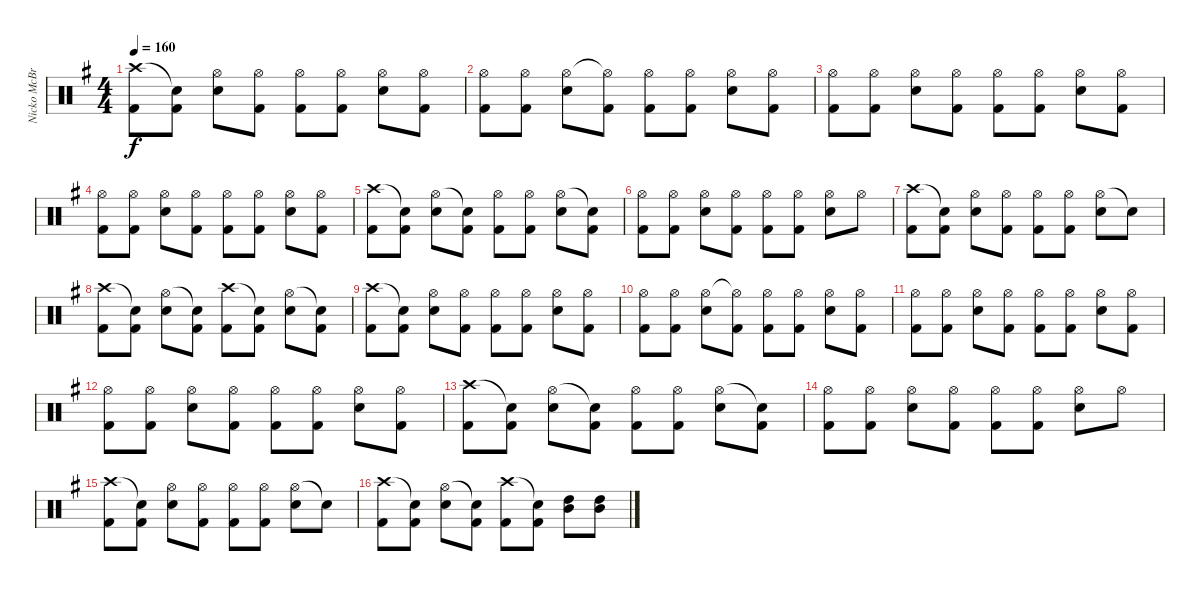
\track ("Nicko McBrain" "Nicko McBr") {instrument percussion}
\staff {score}
\articulation defaults
\ts (4 4)
\tempo 160
\clef neutral
\ks g
("Crash high (hit)" "Kick (hit) 2").8{dy f} ("Snare (hit)"{t} "Kick (hit) 2").8 ("Hi-Hat (open)" "Electric Snare (hit)").8 ("Hi-Hat (open)" "Kick (hit) 2").8 ("Hi-Hat (open)" "Kick (hit) 2").8 ("Hi-Hat (open)" "Kick (hit) 2").8 ("Hi-Hat (open)" "Electric Snare (hit)").8 ("Hi-Hat (open)" "Kick (hit) 2").8 |
("Hi-Hat (open)" "Kick (hit) 2").8 ("Hi-Hat (open)" "Kick (hit) 2").8 ("Hi-Hat (open)" "Electric Snare (hit)").8 ("Hi-Hat (open)"{t} "Kick (hit) 2").8 ("Hi-Hat (open)" "Kick (hit) 2").8 ("Hi-Hat (open)" "Kick (hit) 2").8 ("Hi-Hat (open)" "Electric Snare (hit)").8 ("Hi-Hat (open)" "Kick (hit) 2").8 |
("Hi-Hat (open)" "Kick (hit) 2").8 ("Hi-Hat (open)" "Kick (hit) 2").8 ("Hi-Hat (open)" "Electric Snare (hit)").8 ("Hi-Hat (open)" "Kick (hit) 2").8 ("Hi-Hat (open)" "Kick (hit) 2").8 ("Hi-Hat (open)" "Kick (hit) 2").8 ("Hi-Hat (open)" "Electric Snare (hit)").8 ("Hi-Hat (open)" "Kick (hit) 2").8 |
("Hi-Hat (open)" "Kick (hit) 2").8 ("Hi-Hat (open)" "Kick (hit) 2").8 ("Hi-Hat (open)" "Electric Snare (hit)").8 ("Hi-Hat (open)" "Kick (hit) 2").8 ("Hi-Hat (open)" "Kick (hit) 2").8 ("Hi-Hat (open)" "Kick (hit) 2").8 ("Hi-Hat (open)" "Electric Snare (hit)").8 ("Hi-Hat (open)" "Kick (hit) 2").8 |
("Crash high (hit)" "Kick (hit) 2").8 ("Snare (hit)"{t} "Kick (hit) 2").8 ("Hi-Hat (open)" "Electric Snare (hit)").8 ("Snare (hit)"{t} "Kick (hit) 2").8 ("Hi-Hat (open)" "Kick (hit) 2").8 ("Hi-Hat (open)" "Kick (hit) 2").8 ("Hi-Hat (open)" "Electric Snare (hit)").8 ("Snare (hit)"{t} "Kick (hit) 2").8 |
("Hi-Hat (open)" "Kick (hit) 2").8 ("Hi-Hat (open)" "Kick (hit) 2").8 ("Hi-Hat (open)" "Electric Snare (hit)").8 ("Hi-Hat (open)" "Kick (hit) 2").8 ("Hi-Hat (open)" "Kick (hit) 2").8 ("Hi-Hat (open)" "Kick (hit) 2").8 ("Hi-Hat (open)" "Electric Snare (hit)").8 "Hi-Hat (open)".8 |
("Crash high (hit)" "Kick (hit) 2").8 ("Snare (hit)"{t} "Kick (hit) 2").8 ("Hi-Hat (open)" "Electric Snare (hit)").8 ("Hi-Hat (open)" "Kick (hit) 2").8 ("Hi-Hat (open)" "Kick (hit) 2").8 ("Hi-Hat (open)" "Kick (hit) 2").8 ("Hi-Hat (open)" "Electric Snare (hit)").8 "Snare (hit)"{t}.8 |
("Crash high (hit)" "Kick (hit) 2").8 ("Snare (hit)"{t} "Kick (hit) 2").8 ("Hi-Hat (open)" "Electric Snare (hit)").8 ("Snare (hit)"{t} "Kick (hit) 2").8 ("Crash high (hit)" "Kick (hit) 2").8 ("Snare (hit)"{t} "Kick (hit) 2").8 ("Hi-Hat (open)" "Electric Snare (hit)").8 ("Snare (hit)"{t} "Kick (hit) 2").8 |
("Crash high (hit)" "Kick (hit) 2").8 ("Snare (hit)"{t} "Kick (hit) 2").8 ("Hi-Hat (open)" "Electric Snare (hit)").8 ("Hi-Hat (open)" "Kick (hit) 2").8 ("Hi-Hat (open)" "Kick (hit) 2").8 ("Hi-Hat (open)" "Kick (hit) 2").8 ("Hi-Hat (open)" "Electric Snare (hit)").8 ("Hi-Hat (open)" "Kick (hit) 2").8 |
("Hi-Hat (open)" "Kick (hit) 2").8 ("Hi-Hat (open)" "Kick (hit) 2").8 ("Hi-Hat (open)" "Electric Snare (hit)").8 ("Hi-Hat (open)"{t} "Kick (hit) 2").8 ("Hi-Hat (open)" "Kick (hit) 2").8 ("Hi-Hat (open)" "Kick (hit) 2").8 ("Hi-Hat (open)" "Electric Snare (hit)").8 ("Hi-Hat (open)" "Kick (hit) 2").8 |
("Hi-Hat (open)" "Kick (hit) 2").8 ("Hi-Hat (open)" "Kick (hit) 2").8 ("Hi-Hat (open)" "Electric Snare (hit)").8 ("Hi-Hat (open)" "Kick (hit) 2").8 ("Hi-Hat (open)" "Kick (hit) 2").8 ("Hi-Hat (open)" "Kick (hit) 2").8 ("Hi-Hat (open)" "Electric Snare (hit)").8 ("Hi-Hat (open)" "Kick (hit) 2").8 |
("Hi-Hat (open)" "Kick (hit) 2").8 ("Hi-Hat (open)" "Kick (hit) 2").8 ("Hi-Hat (open)" "Electric Snare (hit)").8 ("Hi-Hat (open)" "Kick (hit) 2").8 ("Hi-Hat (open)" "Kick (hit) 2").8 ("Hi-Hat (open)" "Kick (hit) 2").8 ("Hi-Hat (open)" "Electric Snare (hit)").8 ("Hi-Hat (open)" "Kick (hit) 2").8 |
("Crash high (hit)" "Kick (hit) 2").8 ("Snare (hit)"{t} "Kick (hit) 2").8 ("Hi-Hat (open)" "Electric Snare (hit)").8 ("Snare (hit)"{t} "Kick (hit) 2").8 ("Hi-Hat (open)" "Kick (hit) 2").8 ("Hi-Hat (open)" "Kick (hit) 2").8 ("Hi-Hat (open)" "Electric Snare (hit)").8 ("Snare (hit)"{t} "Kick (hit) 2").8 |
("Hi-Hat (open)" "Kick (hit) 2").8 ("Hi-Hat (open)" "Kick (hit) 2").8 ("Hi-Hat (open)" "Electric Snare (hit)").8 ("Hi-Hat (open)" "Kick (hit) 2").8 ("Hi-Hat (open)" "Kick (hit) 2").8 ("Hi-Hat (open)" "Kick (hit) 2").8 ("Hi-Hat (open)" "Electric Snare (hit)").8 "Hi-Hat (open)".8 |
("Crash high (hit)" "Kick (hit) 2").8 ("Snare (hit)"{t} "Kick (hit) 2").8 ("Hi-Hat (open)" "Electric Snare (hit)").8 ("Hi-Hat (open)" "Kick (hit) 2").8 ("Hi-Hat (open)" "Kick (hit) 2").8 ("Hi-Hat (open)" "Kick (hit) 2").8 ("Hi-Hat (open)" "Electric Snare (hit)").8 "Snare (hit)"{t}.8 |
("Crash high (hit)" "Kick (hit) 2").8 ("Snare (hit)"{t} "Kick (hit) 2").8 ("Hi-Hat (open)" "Electric Snare (hit)").8 ("Snare (hit)"{t} "Kick (hit) 2").8 ("Crash high (hit)" "Kick (hit) 2").8 ("Snare (hit)"{t} "Kick (hit) 2").8 ("Mid Tom (hit)" "High Tom (hit)").8 ("Mid Tom (hit)" "High Tom (hit)").8
